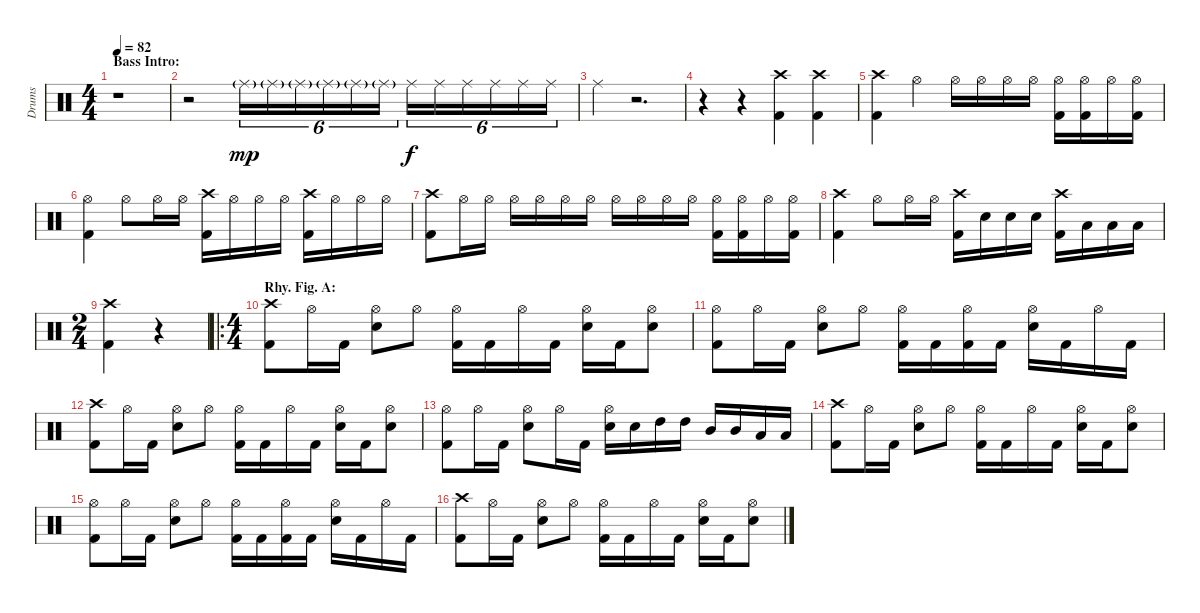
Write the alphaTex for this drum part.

\track ("Drums" "Drums") {instrument percussion}
\staff {score}
\articulation defaults
\ts (4 4)
\section ("" "Bass Intro:")
\tempo 82
\clef neutral
\ks c
r.1{dy mp} |
r.2 "Ride (middle)"{g}.16{tu (6 4)} "Ride (middle)"{g}.16{tu (6 4)} "Ride (middle)"{g}.16{tu (6 4)} "Ride (middle)"{g}.16{tu (6 4)} "Ride (middle)"{g}.16{tu (6 4)} "Ride (middle)"{g}.16{tu (6 4)} "Ride (middle)".16{tu (6 4) dy f} "Ride (middle)".16{tu (6 4)} "Ride (middle)".16{tu (6 4)} "Ride (middle)".16{tu (6 4)} "Ride (middle)".16{tu (6 4)} "Ride (middle)".16{tu (6 4)} |
"Ride (middle)".4 r.2{d} |
r.4 r.4 ("Crash high (hit)" "Kick (hit) 2").4 ("Crash high (hit)" "Kick (hit) 2").4 |
("Crash high (hit)" "Kick (hit) 2").4 "Hi-Hat (open)".4 "Hi-Hat (open)".16 "Hi-Hat (open)".16 "Hi-Hat (open)".16 "Hi-Hat (open)".16 ("Hi-Hat (open)" "Kick (hit) 2").16 ("Hi-Hat (open)" "Kick (hit) 2").16 "Hi-Hat (open)".16 ("Hi-Hat (open)" "Kick (hit) 2").16 |
("Hi-Hat (open)" "Kick (hit) 2").4 "Hi-Hat (open)".8 "Hi-Hat (open)".16 "Hi-Hat (open)".16 ("Crash high (hit)" "Kick (hit) 2").16 "Hi-Hat (open)".16 "Hi-Hat (open)".16 "Hi-Hat (open)".16 ("Crash high (hit)" "Kick (hit) 2").16 "Hi-Hat (open)".16 "Hi-Hat (open)".16 "Hi-Hat (open)".16 |
("Crash high (hit)" "Kick (hit) 2").8 "Hi-Hat (open)".16 "Hi-Hat (open)".16 "Hi-Hat (open)".16 "Hi-Hat (open)".16 "Hi-Hat (open)".16 "Hi-Hat (open)".16 "Hi-Hat (open)".16 "Hi-Hat (open)".16 "Hi-Hat (open)".16 "Hi-Hat (open)".16 ("Hi-Hat (open)" "Kick (hit) 2").16 ("Hi-Hat (open)" "Kick (hit) 2").16 "Hi-Hat (open)".16 ("Hi-Hat (open)" "Kick (hit) 2").16 |
("Crash high (hit)" "Kick (hit) 2").4 "Hi-Hat (open)".8 "Hi-Hat (open)".16 "Hi-Hat (open)".16 ("Crash high (hit)" "Kick (hit) 2").16 "Electric Snare (hit)".16 "Electric Snare (hit)".16 "Electric Snare (hit)".16 ("Crash high (hit)" "Kick (hit) 2").16 "Low Tom (hit)".16 "Low Tom (hit)".16 "Low Tom (hit)".16 |
\ts (2 4)
("Crash high (hit)" "Kick (hit) 2").4 r.4 |
\ro
\ts (4 4)
\section ("" "Rhy. Fig. A:")
("Crash high (hit)" "Kick (hit) 2").8 "Hi-Hat (open)".16 "Kick (hit) 2".16 ("Hi-Hat (open)" "Electric Snare (hit)").8 "Hi-Hat (open)".8 ("Hi-Hat (open)" "Kick (hit) 2").16 "Kick (hit) 2".16 "Hi-Hat (open)".16 "Kick (hit) 2".16 ("Hi-Hat (open)" "Electric Snare (hit)").16 "Kick (hit) 2".16 ("Hi-Hat (open)" "Electric Snare (hit)").8 |
("Hi-Hat (open)" "Kick (hit) 2").8 "Hi-Hat (open)".16 "Kick (hit) 2".16 ("Hi-Hat (open)" "Electric Snare (hit)").8 "Hi-Hat (open)".8 ("Hi-Hat (open)" "Kick (hit) 2").16 "Kick (hit) 2".16 ("Hi-Hat (open)" "Kick (hit) 2").16 "Kick (hit) 2".16 ("Hi-Hat (open)" "Electric Snare (hit)").16 "Kick (hit) 2".16 "Hi-Hat (open)".16 "Kick (hit) 2".16 |
("Crash high (hit)" "Kick (hit) 2").8 "Hi-Hat (open)".16 "Kick (hit) 2".16 ("Hi-Hat (open)" "Electric Snare (hit)").8 "Hi-Hat (open)".8 ("Hi-Hat (open)" "Kick (hit) 2").16 "Kick (hit) 2".16 "Hi-Hat (open)".16 "Kick (hit) 2".16 ("Hi-Hat (open)" "Electric Snare (hit)").16 "Kick (hit) 2".16 ("Hi-Hat (open)" "Electric Snare (hit)").8 |
("Hi-Hat (open)" "Kick (hit) 2").8 "Hi-Hat (open)".16 "Kick (hit) 2".16 ("Hi-Hat (open)" "Electric Snare (hit)").8 "Hi-Hat (open)".16 "Kick (hit) 2".16 ("Hi-Hat (open)" "Electric Snare (hit)").16 "Electric Snare (hit)".16 "High Tom (hit)".16 "High Tom (hit)".16 "Mid Tom (hit)".16 "Mid Tom (hit)".16 "Low Tom (hit)".16 "Low Tom (hit)".16 |
("Crash high (hit)" "Kick (hit) 2").8 "Hi-Hat (open)".16 "Kick (hit) 2".16 ("Hi-Hat (open)" "Electric Snare (hit)").8 "Hi-Hat (open)".8 ("Hi-Hat (open)" "Kick (hit) 2").16 "Kick (hit) 2".16 "Hi-Hat (open)".16 "Kick (hit) 2".16 ("Hi-Hat (open)" "Electric Snare (hit)").16 "Kick (hit) 2".16 ("Hi-Hat (open)" "Electric Snare (hit)").8 |
("Hi-Hat (open)" "Kick (hit) 2").8 "Hi-Hat (open)".16 "Kick (hit) 2".16 ("Hi-Hat (open)" "Electric Snare (hit)").8 "Hi-Hat (open)".8 ("Hi-Hat (open)" "Kick (hit) 2").16 "Kick (hit) 2".16 ("Hi-Hat (open)" "Kick (hit) 2").16 "Kick (hit) 2".16 ("Hi-Hat (open)" "Electric Snare (hit)").16 "Kick (hit) 2".16 "Hi-Hat (open)".16 "Kick (hit) 2".16 |
("Crash high (hit)" "Kick (hit) 2").8 "Hi-Hat (open)".16 "Kick (hit) 2".16 ("Hi-Hat (open)" "Electric Snare (hit)").8 "Hi-Hat (open)".8 ("Hi-Hat (open)" "Kick (hit) 2").16 "Kick (hit) 2".16 "Hi-Hat (open)".16 "Kick (hit) 2".16 ("Hi-Hat (open)" "Electric Snare (hit)").16 "Kick (hit) 2".16 ("Hi-Hat (open)" "Electric Snare (hit)").8
